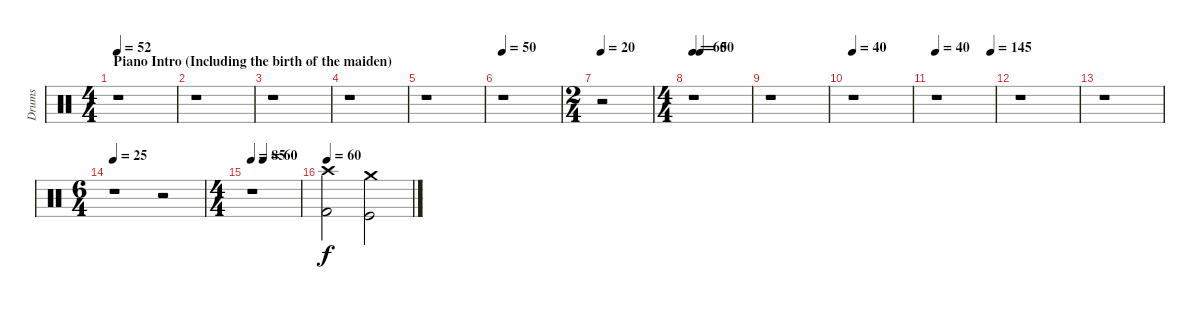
\track ("Drums" "Drums") {instrument percussion}
\staff {score}
\articulation defaults
\ts (4 4)
\section ("" "Piano Intro (Including the birth of the maiden)")
\tempo 52
\clef neutral
\ks c
r.1{dy f} |
r.1 |
r.1 |
r.1 |
r.1 |
\tempo 50
r.1 |
\ts (2 4)
\tempo 20
r.2 |
\ts (4 4)
\tempo 60
\tempo (50 0.125)
r.1 |
r.1 |
\tempo 40
r.1 |
\tempo 40
\tempo (145 0.9375)
r.1 |
r.1 |
r.1 |
\ts (6 4)
\tempo 25
r.1 r.2 |
\ts (4 4)
\tempo 85
\tempo (60 0.25)
r.1 |
\tempo 60
("Crash high (hit)" "Kick (hit) 2").2 ("Crash medium (hit)" "Kick (hit)").2
